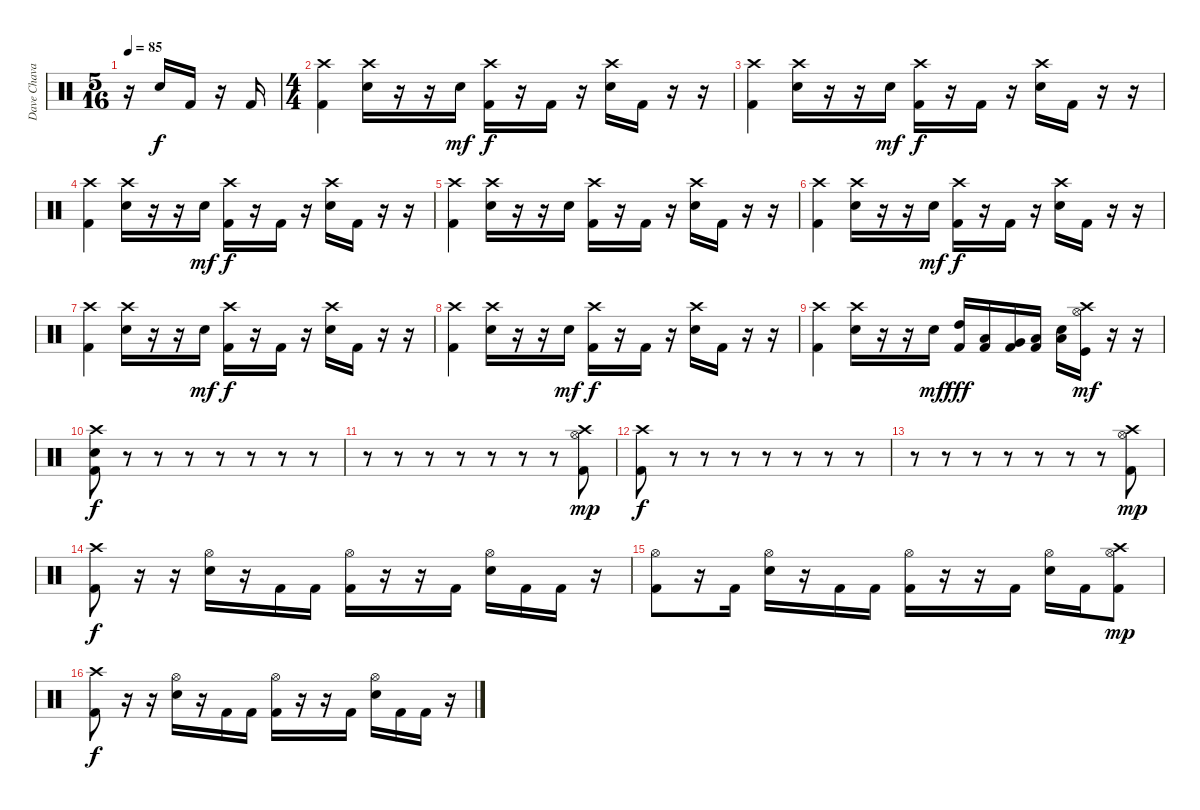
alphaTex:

\track ("Dave Chavarri" "Dave Chava") {instrument percussion}
\staff {score}
\articulation defaults
\ts (5 16)
\tempo 85
\clef neutral
\ks c
r.16{dy f} "Snare (hit) 2".16 "Kick (hit) 2".16 r.16 "Kick (hit) 2".16 |
\ts (4 4)
("Crash high (hit)" "Kick (hit) 2").4 ("Crash high (hit)" "Snare (hit) 2").16 r.16 r.16 "Snare (hit) 2".16{dy mf} ("Crash high (hit)" "Kick (hit) 2").16{dy f} r.16 "Kick (hit) 2".16 r.16 ("Crash high (hit)" "Snare (hit) 2").16 "Kick (hit) 2".16 r.16 r.16 |
("Crash high (hit)" "Kick (hit) 2").4 ("Crash high (hit)" "Snare (hit) 2").16 r.16 r.16 "Snare (hit) 2".16{dy mf} ("Crash high (hit)" "Kick (hit) 2").16{dy f} r.16 "Kick (hit) 2".16 r.16 ("Crash high (hit)" "Snare (hit) 2").16 "Kick (hit) 2".16 r.16 r.16 |
("Crash high (hit)" "Kick (hit) 2").4 ("Crash high (hit)" "Snare (hit) 2").16 r.16 r.16 "Snare (hit) 2".16{dy mf} ("Crash high (hit)" "Kick (hit) 2").16{dy f} r.16 "Kick (hit) 2".16 r.16 ("Crash high (hit)" "Snare (hit) 2").16 "Kick (hit) 2".16 r.16 r.16 |
("Crash high (hit)" "Kick (hit) 2").4 ("Crash high (hit)" "Snare (hit) 2").16 r.16 r.16 "Snare (hit) 2".16 ("Crash high (hit)" "Kick (hit) 2").16 r.16 "Kick (hit) 2".16 r.16 ("Crash high (hit)" "Snare (hit) 2").16 "Kick (hit) 2".16 r.16 r.16 |
("Crash high (hit)" "Kick (hit) 2").4 ("Crash high (hit)" "Snare (hit) 2").16 r.16 r.16 "Snare (hit) 2".16{dy mf} ("Crash high (hit)" "Kick (hit) 2").16{dy f} r.16 "Kick (hit) 2".16 r.16 ("Crash high (hit)" "Snare (hit) 2").16 "Kick (hit) 2".16 r.16 r.16 |
("Crash high (hit)" "Kick (hit) 2").4 ("Crash high (hit)" "Snare (hit) 2").16 r.16 r.16 "Snare (hit) 2".16{dy mf} ("Crash high (hit)" "Kick (hit) 2").16{dy f} r.16 "Kick (hit) 2".16 r.16 ("Crash high (hit)" "Snare (hit) 2").16 "Kick (hit) 2".16 r.16 r.16 |
("Crash high (hit)" "Kick (hit) 2").4 ("Crash high (hit)" "Snare (hit) 2").16 r.16 r.16 "Snare (hit) 2".16{dy mf} ("Crash high (hit)" "Kick (hit) 2").16{dy f} r.16 "Kick (hit) 2".16 r.16 ("Crash high (hit)" "Snare (hit) 2").16 "Kick (hit) 2".16 r.16 r.16 |
("Crash high (hit)" "Kick (hit) 2").4 ("Crash high (hit)" "Snare (hit) 2").16 r.16 r.16 "Snare (hit) 2".16{dy mf} ("High Tom (hit)" "Kick (hit) 2").16{dy fff} ("Low Floor Tom (hit)" "Kick (hit) 2").16 ("Very Low Tom (hit)" "Kick (hit) 2").16 ("Low Floor Tom (hit)" "Kick (hit) 2").16 ("Low Floor Tom (hit)" "Snare (hit) 2").16 ("Crash high (hit)" "Hi-Hat (open)" "Kick (hit)").16{dy mf} r.16 r.16 |
("Crash high (hit)"{pm} "Snare (hit) 2" "Kick (hit) 2").8{dy f} r.8 r.8 r.8 r.8 r.8 r.8 r.8 |
r.8 r.8 r.8 r.8 r.8 r.8 r.8 ("Crash high (hit)" "Hi-Hat (open)" "Kick (hit) 2").8{dy mp} |
("Crash high (hit)" "Kick (hit) 2").8{dy f} r.8 r.8 r.8 r.8 r.8 r.8 r.8 |
r.8 r.8 r.8 r.8 r.8 r.8 r.8 ("Crash high (hit)" "Hi-Hat (open)" "Kick (hit) 2").8{dy mp} |
("Crash high (hit)" "Kick (hit) 2").8{dy f} r.16 r.16 ("Hi-Hat (open)" "Snare (hit) 2").16 r.16 "Kick (hit) 2".16 "Kick (hit) 2".16 ("Hi-Hat (open)" "Kick (hit) 2").16 r.16 r.16 "Kick (hit) 2".16 ("Hi-Hat (open)" "Snare (hit) 2").16 "Kick (hit) 2".16 "Kick (hit) 2".16 r.16 |
("Hi-Hat (open)" "Kick (hit) 2").8 r.16 "Kick (hit) 2".16 ("Hi-Hat (open)" "Snare (hit) 2").16 r.16 "Kick (hit) 2".16 "Kick (hit) 2".16 ("Hi-Hat (open)" "Kick (hit) 2").16 r.16 r.16 "Kick (hit) 2".16 ("Hi-Hat (open)" "Snare (hit) 2").16 "Kick (hit) 2".16 ("Crash high (hit)" "Hi-Hat (open)" "Kick (hit) 2").8{dy mp} |
("Crash high (hit)" "Kick (hit) 2").8{dy f} r.16 r.16 ("Hi-Hat (open)" "Snare (hit) 2").16 r.16 "Kick (hit) 2".16 "Kick (hit) 2".16 ("Hi-Hat (open)" "Kick (hit) 2").16 r.16 r.16 "Kick (hit) 2".16 ("Hi-Hat (open)" "Snare (hit) 2").16 "Kick (hit) 2".16 "Kick (hit) 2".16 r.16
